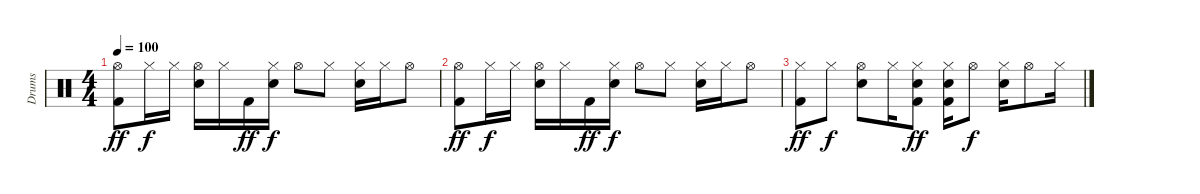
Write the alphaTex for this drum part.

\track ("Drums" "Drums") {instrument percussion}
\staff {score}
\articulation defaults
\ts (4 4)
\tempo 100
\clef neutral
\ks c
("Hi-Hat (open)" "Kick (hit) 2").8{dy ff} "Hi-Hat (closed)".16{dy f} "Hi-Hat (closed)".16 ("Hi-Hat (open)" "Snare (hit) 2").16 "Hi-Hat (closed)".16 "Kick (hit) 2".16{dy ff} ("Hi-Hat (closed)" "Snare (hit) 2").16{dy f} "Hi-Hat (open)".8 "Hi-Hat (closed)".8 ("Hi-Hat (closed)" "Snare (hit) 2").16 "Hi-Hat (closed)".16 "Hi-Hat (open)".8 |
("Hi-Hat (open)" "Kick (hit) 2").8{dy ff} "Hi-Hat (closed)".16{dy f} "Hi-Hat (closed)".16 ("Hi-Hat (open)" "Snare (hit) 2").16 "Hi-Hat (closed)".16 "Kick (hit) 2".16{dy ff} ("Hi-Hat (closed)" "Snare (hit) 2").16{dy f} "Hi-Hat (open)".8 "Hi-Hat (closed)".8 ("Hi-Hat (closed)" "Snare (hit) 2").16 "Hi-Hat (closed)".16 "Hi-Hat (open)".8 |
("Hi-Hat (closed)" "Kick (hit) 2").8{dy ff} "Hi-Hat (closed)".8{dy f} ("Hi-Hat (open)" "Snare (hit) 2").8 "Hi-Hat (closed)".16 ("Hi-Hat (closed)" "Snare (hit) 2" "Kick (hit) 2").8{dy ff} ("Hi-Hat (closed)" "Snare (hit) 2" "Kick (hit) 2").16 "Hi-Hat (open)".8{dy f} ("Hi-Hat (closed)" "Snare (hit) 2").16 "Hi-Hat (open)".8 "Hi-Hat (closed)".16
